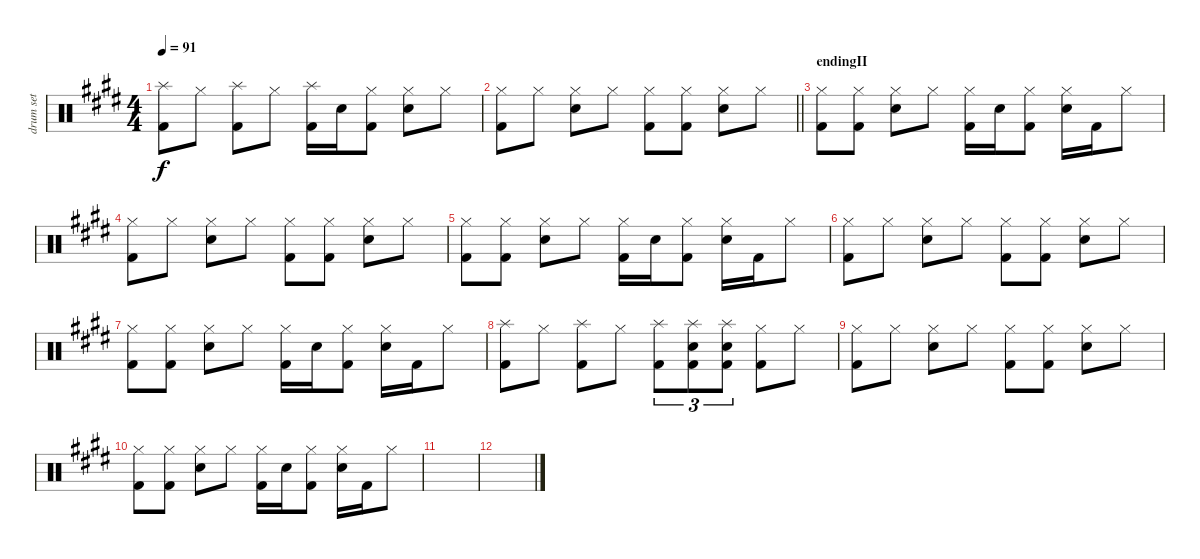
\track ("drum set" "drum set") {instrument percussion}
\staff {score}
\articulation defaults
\ts (4 4)
\tempo 91
\clef neutral
\ks c#minor
("Splash (hit)" "Kick (hit) 2").8{dy f} "Hi-Hat (closed)".8 ("Splash (hit)" "Kick (hit) 2").8 "Hi-Hat (closed)".8 ("Splash (hit)" "Kick (hit) 2").16 "Hand Clap (hit)".16 ("Hi-Hat (closed)" "Kick (hit) 2").8 ("Hi-Hat (closed)" "Hand Clap (hit)").8 "Hi-Hat (closed)".8 |
\barLineRight lightlight
\ks e
("Hi-Hat (closed)" "Kick (hit) 2").8 "Hi-Hat (closed)".8 ("Hi-Hat (closed)" "Hand Clap (hit)").8 "Hi-Hat (closed)".8 ("Hi-Hat (closed)" "Kick (hit) 2").8 ("Hi-Hat (closed)" "Kick (hit) 2").8 ("Hi-Hat (closed)" "Hand Clap (hit)").8 "Hi-Hat (closed)".8 |
\section ("" "endingII ")
\ks c#minor
("Hi-Hat (closed)" "Kick (hit) 2").8 ("Hi-Hat (closed)" "Kick (hit) 2").8 ("Hi-Hat (closed)" "Hand Clap (hit)").8 "Hi-Hat (closed)".8 ("Hi-Hat (closed)" "Kick (hit) 2").16 "Hand Clap (hit)".16 ("Hi-Hat (closed)" "Kick (hit) 2").8 ("Hi-Hat (closed)" "Hand Clap (hit)").16 "Kick (hit) 2".16 "Hi-Hat (closed)".8 |
\ks e
("Hi-Hat (closed)" "Kick (hit) 2").8 "Hi-Hat (closed)".8 ("Hi-Hat (closed)" "Hand Clap (hit)").8 "Hi-Hat (closed)".8 ("Hi-Hat (closed)" "Kick (hit) 2").8 ("Hi-Hat (closed)" "Kick (hit) 2").8 ("Hi-Hat (closed)" "Hand Clap (hit)").8 "Hi-Hat (closed)".8 |
\ks c#minor
("Hi-Hat (closed)" "Kick (hit) 2").8 ("Hi-Hat (closed)" "Kick (hit) 2").8 ("Hi-Hat (closed)" "Hand Clap (hit)").8 "Hi-Hat (closed)".8 ("Hi-Hat (closed)" "Kick (hit) 2").16 "Hand Clap (hit)".16 ("Hi-Hat (closed)" "Kick (hit) 2").8 ("Hi-Hat (closed)" "Hand Clap (hit)").16 "Kick (hit) 2".16 "Hi-Hat (closed)".8 |
\ks e
("Hi-Hat (closed)" "Kick (hit) 2").8 "Hi-Hat (closed)".8 ("Hi-Hat (closed)" "Hand Clap (hit)").8 "Hi-Hat (closed)".8 ("Hi-Hat (closed)" "Kick (hit) 2").8 ("Hi-Hat (closed)" "Kick (hit) 2").8 ("Hi-Hat (closed)" "Hand Clap (hit)").8 "Hi-Hat (closed)".8 |
\ks c#minor
("Hi-Hat (closed)" "Kick (hit) 2").8 ("Hi-Hat (closed)" "Kick (hit) 2").8 ("Hi-Hat (closed)" "Hand Clap (hit)").8 "Hi-Hat (closed)".8 ("Hi-Hat (closed)" "Kick (hit) 2").16 "Hand Clap (hit)".16 ("Hi-Hat (closed)" "Kick (hit) 2").8 ("Hi-Hat (closed)" "Hand Clap (hit)").16 "Kick (hit) 2".16 "Hi-Hat (closed)".8 |
("Splash (hit)" "Kick (hit) 2").8 "Hi-Hat (closed)".8 ("Splash (hit)" "Kick (hit) 2").8 "Hi-Hat (closed)".8 ("Splash (hit)" "Kick (hit) 2").8{tu (3 2)} ("Splash (hit)" "Hand Clap (hit)" "Kick (hit) 2").8{tu (3 2)} ("Splash (hit)" "Hand Clap (hit)" "Kick (hit) 2").8{tu (3 2)} ("Hi-Hat (closed)" "Kick (hit) 2").8 "Hi-Hat (closed)".8 |
\ks e
("Hi-Hat (closed)" "Kick (hit) 2").8 "Hi-Hat (closed)".8 ("Hi-Hat (closed)" "Hand Clap (hit)").8 "Hi-Hat (closed)".8 ("Hi-Hat (closed)" "Kick (hit) 2").8 ("Hi-Hat (closed)" "Kick (hit) 2").8 ("Hi-Hat (closed)" "Hand Clap (hit)").8 "Hi-Hat (closed)".8 |
\ks c#minor
("Hi-Hat (closed)" "Kick (hit) 2").8 ("Hi-Hat (closed)" "Kick (hit) 2").8 ("Hi-Hat (closed)" "Hand Clap (hit)").8 "Hi-Hat (closed)".8 ("Hi-Hat (closed)" "Kick (hit) 2").16 "Hand Clap (hit)".16 ("Hi-Hat (closed)" "Kick (hit) 2").8 ("Hi-Hat (closed)" "Hand Clap (hit)").16 "Kick (hit) 2".16 "Hi-Hat (closed)".8 |
\ks e
|
\ks c#minor
